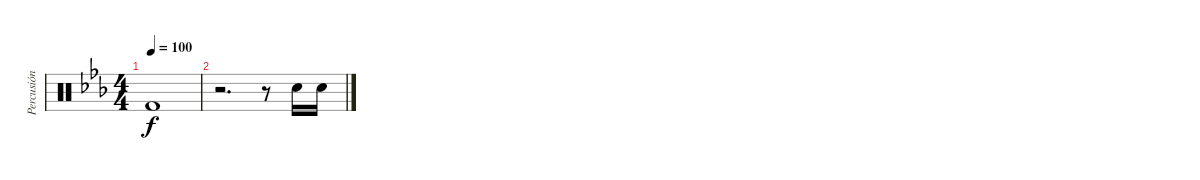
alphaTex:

\track ("Percusión" "Percusión") {instrument percussion}
\staff {score}
\articulation defaults
\ts (4 4)
\tempo 100
\clef neutral
\ks eb "Kick (hit) 2".1{dy f}
|
r.2{d} r.8 "Electric Snare (hit)".16 "Electric Snare (hit)".16
